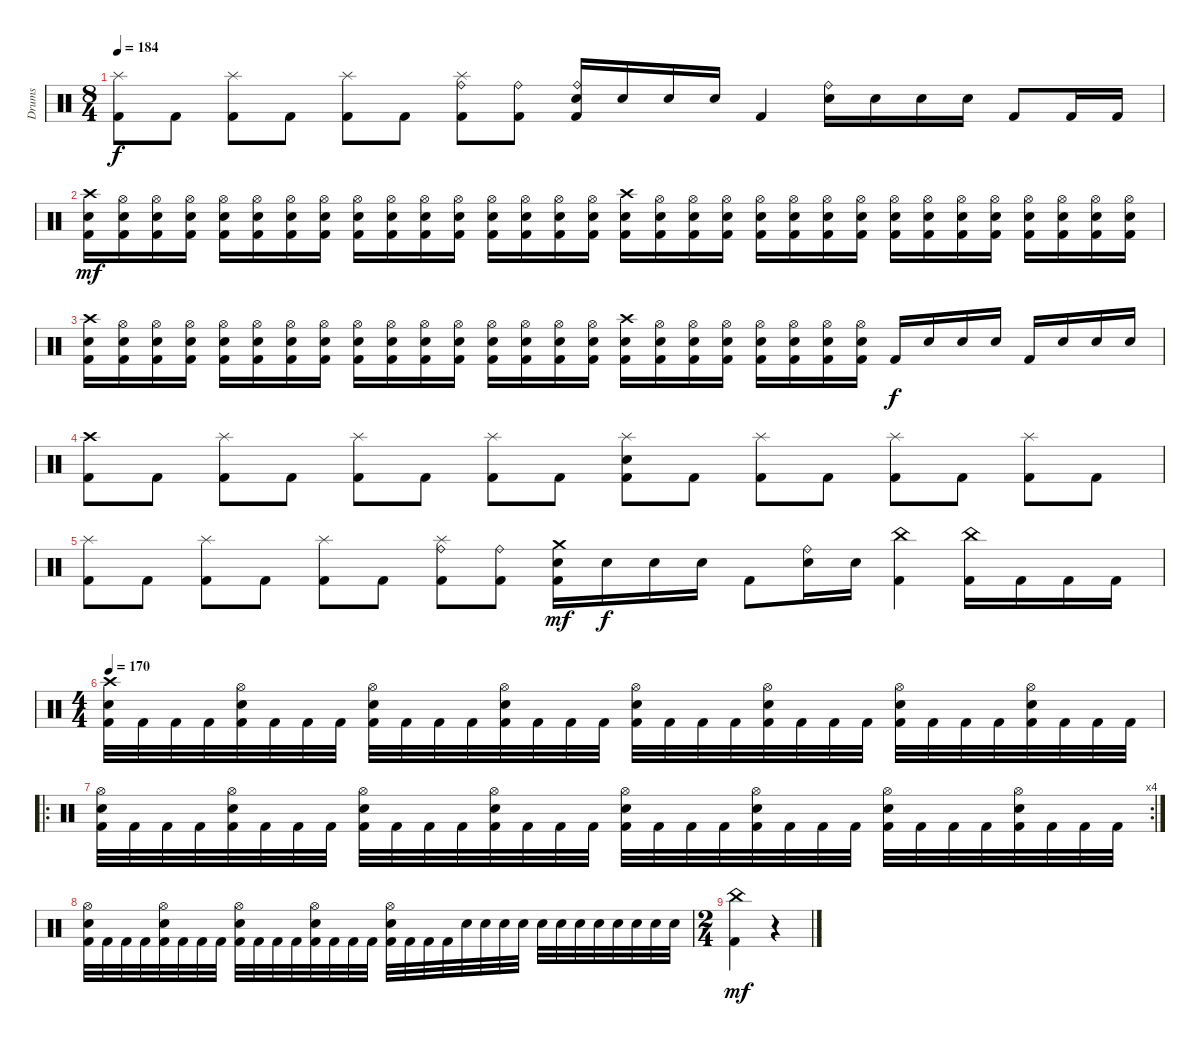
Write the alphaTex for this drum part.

\track ("Drums" "Drums") {instrument percussion}
\staff {score}
\articulation defaults
\ts (8 4)
\tempo 184
\clef neutral
\ks c
("Splash (hit)" "Kick (hit) 2").8{dy f} "Kick (hit) 2".8 ("Splash (hit)" "Kick (hit) 2").8 "Kick (hit) 2".8 ("Splash (hit)" "Kick (hit) 2").8 "Kick (hit) 2".8 ("Splash (hit)" "Ride (bell)" "Kick (hit) 2").8 ("Ride (bell)" "Kick (hit) 2").8 ("Ride (bell)" "Electric Snare (hit)" "Kick (hit) 2").16 "Electric Snare (hit)".16 "Electric Snare (hit)".16 "Electric Snare (hit)".16 "Kick (hit) 2".4 ("Ride (bell)" "Electric Snare (hit)").16 "Electric Snare (hit)".16 "Electric Snare (hit)".16 "Electric Snare (hit)".16 "Kick (hit) 2".8 "Kick (hit) 2".16 "Kick (hit) 2".16 |
("Crash high (hit)" "Electric Snare (hit)" "Kick (hit) 2").16{dy mf} ("Hi-Hat (open)" "Electric Snare (hit)" "Kick (hit) 2").16 ("Hi-Hat (open)" "Electric Snare (hit)" "Kick (hit) 2").16 ("Hi-Hat (open)" "Electric Snare (hit)" "Kick (hit) 2").16 ("Hi-Hat (open)" "Electric Snare (hit)" "Kick (hit) 2").16 ("Hi-Hat (open)" "Electric Snare (hit)" "Kick (hit) 2").16 ("Hi-Hat (open)" "Electric Snare (hit)" "Kick (hit) 2").16 ("Hi-Hat (open)" "Electric Snare (hit)" "Kick (hit) 2").16 ("Hi-Hat (open)" "Electric Snare (hit)" "Kick (hit) 2").16 ("Hi-Hat (open)" "Electric Snare (hit)" "Kick (hit) 2").16 ("Hi-Hat (open)" "Electric Snare (hit)" "Kick (hit) 2").16 ("Hi-Hat (open)" "Electric Snare (hit)" "Kick (hit) 2").16 ("Hi-Hat (open)" "Electric Snare (hit)" "Kick (hit) 2").16 ("Hi-Hat (open)" "Electric Snare (hit)" "Kick (hit) 2").16 ("Hi-Hat (open)" "Electric Snare (hit)" "Kick (hit) 2").16 ("Hi-Hat (open)" "Electric Snare (hit)" "Kick (hit) 2").16 ("Crash high (hit)" "Electric Snare (hit)" "Kick (hit) 2").16 ("Hi-Hat (open)" "Electric Snare (hit)" "Kick (hit) 2").16 ("Hi-Hat (open)" "Electric Snare (hit)" "Kick (hit) 2").16 ("Hi-Hat (open)" "Electric Snare (hit)" "Kick (hit) 2").16 ("Hi-Hat (open)" "Electric Snare (hit)" "Kick (hit) 2").16 ("Hi-Hat (open)" "Electric Snare (hit)" "Kick (hit) 2").16 ("Hi-Hat (open)" "Electric Snare (hit)" "Kick (hit) 2").16 ("Hi-Hat (open)" "Electric Snare (hit)" "Kick (hit) 2").16 ("Hi-Hat (open)" "Electric Snare (hit)" "Kick (hit) 2").16 ("Hi-Hat (open)" "Electric Snare (hit)" "Kick (hit) 2").16 ("Hi-Hat (open)" "Electric Snare (hit)" "Kick (hit) 2").16 ("Hi-Hat (open)" "Electric Snare (hit)" "Kick (hit) 2").16 ("Hi-Hat (open)" "Electric Snare (hit)" "Kick (hit) 2").16 ("Hi-Hat (open)" "Electric Snare (hit)" "Kick (hit) 2").16 ("Hi-Hat (open)" "Electric Snare (hit)" "Kick (hit) 2").16 ("Hi-Hat (open)" "Electric Snare (hit)" "Kick (hit) 2").16 |
("Crash high (hit)" "Electric Snare (hit)" "Kick (hit) 2").16 ("Hi-Hat (open)" "Electric Snare (hit)" "Kick (hit) 2").16 ("Hi-Hat (open)" "Electric Snare (hit)" "Kick (hit) 2").16 ("Hi-Hat (open)" "Electric Snare (hit)" "Kick (hit) 2").16 ("Hi-Hat (open)" "Electric Snare (hit)" "Kick (hit) 2").16 ("Hi-Hat (open)" "Electric Snare (hit)" "Kick (hit) 2").16 ("Hi-Hat (open)" "Electric Snare (hit)" "Kick (hit) 2").16 ("Hi-Hat (open)" "Electric Snare (hit)" "Kick (hit) 2").16 ("Hi-Hat (open)" "Electric Snare (hit)" "Kick (hit) 2").16 ("Hi-Hat (open)" "Electric Snare (hit)" "Kick (hit) 2").16 ("Hi-Hat (open)" "Electric Snare (hit)" "Kick (hit) 2").16 ("Hi-Hat (open)" "Electric Snare (hit)" "Kick (hit) 2").16 ("Hi-Hat (open)" "Electric Snare (hit)" "Kick (hit) 2").16 ("Hi-Hat (open)" "Electric Snare (hit)" "Kick (hit) 2").16 ("Hi-Hat (open)" "Electric Snare (hit)" "Kick (hit) 2").16 ("Hi-Hat (open)" "Electric Snare (hit)" "Kick (hit) 2").16 ("Crash high (hit)" "Electric Snare (hit)" "Kick (hit) 2").16 ("Hi-Hat (open)" "Electric Snare (hit)" "Kick (hit) 2").16 ("Hi-Hat (open)" "Electric Snare (hit)" "Kick (hit) 2").16 ("Hi-Hat (open)" "Electric Snare (hit)" "Kick (hit) 2").16 ("Hi-Hat (open)" "Electric Snare (hit)" "Kick (hit) 2").16 ("Hi-Hat (open)" "Electric Snare (hit)" "Kick (hit) 2").16 ("Hi-Hat (open)" "Electric Snare (hit)" "Kick (hit) 2").16 ("Hi-Hat (open)" "Electric Snare (hit)" "Kick (hit) 2").16 "Kick (hit) 2".16{dy f} "Electric Snare (hit)".16 "Electric Snare (hit)".16 "Electric Snare (hit)".16 "Kick (hit) 2".16 "Electric Snare (hit)".16 "Electric Snare (hit)".16 "Electric Snare (hit)".16 |
("Crash high (hit)" "Kick (hit) 2").8 "Kick (hit) 2".8 ("Splash (hit)" "Kick (hit) 2").8 "Kick (hit) 2".8 ("Splash (hit)" "Kick (hit) 2").8 "Kick (hit) 2".8 ("Splash (hit)" "Kick (hit) 2").8 "Kick (hit) 2".8 ("Splash (hit)" "Electric Snare (hit)" "Kick (hit) 2").8 "Kick (hit) 2".8 ("Splash (hit)" "Kick (hit) 2").8 "Kick (hit) 2".8 ("Splash (hit)" "Kick (hit) 2").8 "Kick (hit) 2".8 ("Splash (hit)" "Kick (hit) 2").8 "Kick (hit) 2".8 |
("Splash (hit)" "Kick (hit) 2").8 "Kick (hit) 2".8 ("Splash (hit)" "Kick (hit) 2").8 "Kick (hit) 2".8 ("Splash (hit)" "Kick (hit) 2").8 "Kick (hit) 2".8 ("Splash (hit)" "Ride (bell)" "Kick (hit) 2").8 ("Ride (bell)" "Kick (hit) 2").8 ("Crash medium (hit)" "Electric Snare (hit)" "Kick (hit) 2").16{dy mf} "Electric Snare (hit)".16{dy f} "Electric Snare (hit)".16 "Electric Snare (hit)".16 "Kick (hit) 2".8 ("Ride (bell)" "Electric Snare (hit)").16 "Electric Snare (hit)".16 ("China (hit)" "Kick (hit) 2").4 ("China (hit)" "Kick (hit) 2").16 "Kick (hit) 2".16 "Kick (hit) 2".16 "Kick (hit) 2".16 |
\ts (4 4)
\tempo 170
("Crash high (hit)" "Electric Snare (hit)" "Kick (hit) 2").32 "Kick (hit) 2".32 "Kick (hit) 2".32 "Kick (hit) 2".32 ("Hi-Hat (open)" "Electric Snare (hit)" "Kick (hit) 2").32 "Kick (hit) 2".32 "Kick (hit) 2".32 "Kick (hit) 2".32 ("Hi-Hat (open)" "Electric Snare (hit)" "Kick (hit) 2").32 "Kick (hit) 2".32 "Kick (hit) 2".32 "Kick (hit) 2".32 ("Hi-Hat (open)" "Electric Snare (hit)" "Kick (hit) 2").32 "Kick (hit) 2".32 "Kick (hit) 2".32 "Kick (hit) 2".32 ("Hi-Hat (open)" "Electric Snare (hit)" "Kick (hit) 2").32 "Kick (hit) 2".32 "Kick (hit) 2".32 "Kick (hit) 2".32 ("Hi-Hat (open)" "Electric Snare (hit)" "Kick (hit) 2").32 "Kick (hit) 2".32 "Kick (hit) 2".32 "Kick (hit) 2".32 ("Hi-Hat (open)" "Electric Snare (hit)" "Kick (hit) 2").32 "Kick (hit) 2".32 "Kick (hit) 2".32 "Kick (hit) 2".32 ("Hi-Hat (open)" "Electric Snare (hit)" "Kick (hit) 2").32 "Kick (hit) 2".32 "Kick (hit) 2".32 "Kick (hit) 2".32 |
\ro
\rc 4
("Hi-Hat (open)" "Electric Snare (hit)" "Kick (hit) 2").32 "Kick (hit) 2".32 "Kick (hit) 2".32 "Kick (hit) 2".32 ("Hi-Hat (open)" "Electric Snare (hit)" "Kick (hit) 2").32 "Kick (hit) 2".32 "Kick (hit) 2".32 "Kick (hit) 2".32 ("Hi-Hat (open)" "Electric Snare (hit)" "Kick (hit) 2").32 "Kick (hit) 2".32 "Kick (hit) 2".32 "Kick (hit) 2".32 ("Hi-Hat (open)" "Electric Snare (hit)" "Kick (hit) 2").32 "Kick (hit) 2".32 "Kick (hit) 2".32 "Kick (hit) 2".32 ("Hi-Hat (open)" "Electric Snare (hit)" "Kick (hit) 2").32 "Kick (hit) 2".32 "Kick (hit) 2".32 "Kick (hit) 2".32 ("Hi-Hat (open)" "Electric Snare (hit)" "Kick (hit) 2").32 "Kick (hit) 2".32 "Kick (hit) 2".32 "Kick (hit) 2".32 ("Hi-Hat (open)" "Electric Snare (hit)" "Kick (hit) 2").32 "Kick (hit) 2".32 "Kick (hit) 2".32 "Kick (hit) 2".32 ("Hi-Hat (open)" "Electric Snare (hit)" "Kick (hit) 2").32 "Kick (hit) 2".32 "Kick (hit) 2".32 "Kick (hit) 2".32 |
("Hi-Hat (open)" "Electric Snare (hit)" "Kick (hit) 2").32 "Kick (hit) 2".32 "Kick (hit) 2".32 "Kick (hit) 2".32 ("Hi-Hat (open)" "Electric Snare (hit)" "Kick (hit) 2").32 "Kick (hit) 2".32 "Kick (hit) 2".32 "Kick (hit) 2".32 ("Hi-Hat (open)" "Electric Snare (hit)" "Kick (hit) 2").32 "Kick (hit) 2".32 "Kick (hit) 2".32 "Kick (hit) 2".32 ("Hi-Hat (open)" "Electric Snare (hit)" "Kick (hit) 2").32 "Kick (hit) 2".32 "Kick (hit) 2".32 "Kick (hit) 2".32 ("Hi-Hat (open)" "Electric Snare (hit)" "Kick (hit) 2").32 "Kick (hit) 2".32 "Kick (hit) 2".32 "Kick (hit) 2".32 "Electric Snare (hit)".32 "Electric Snare (hit)".32 "Electric Snare (hit)".32 "Electric Snare (hit)".32 "Electric Snare (hit)".32 "Electric Snare (hit)".32 "Electric Snare (hit)".32 "Electric Snare (hit)".32 "Electric Snare (hit)".32 "Electric Snare (hit)".32 "Electric Snare (hit)".32 "Electric Snare (hit)".32 |
\ts (2 4)
("China (hit)" "Kick (hit) 2").4{dy mf} r.4
